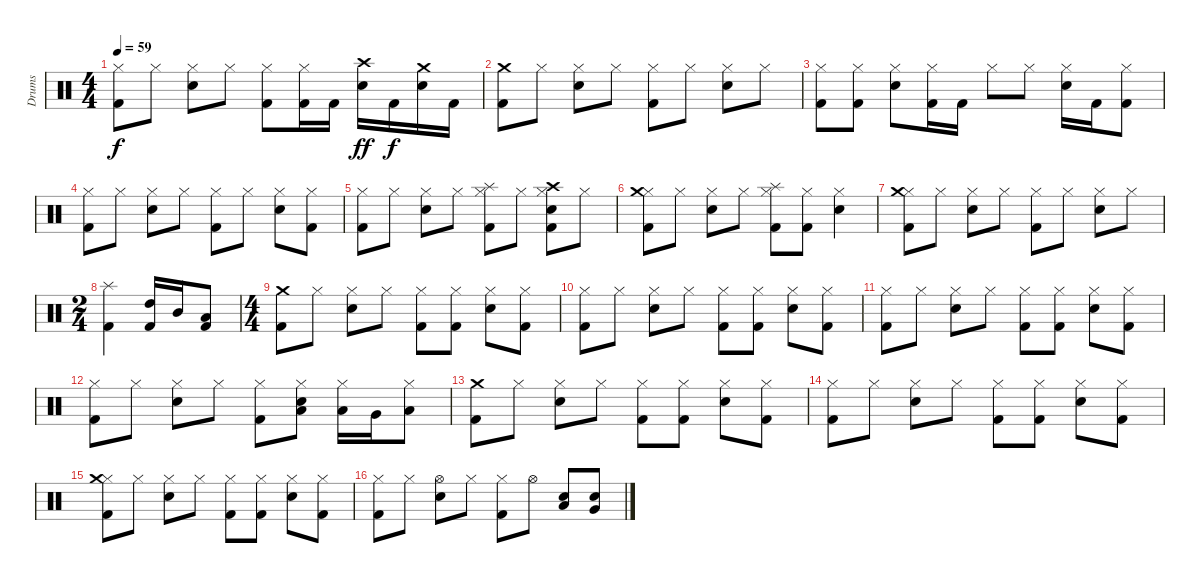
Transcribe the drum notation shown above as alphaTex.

\track ("Drums" "Drums") {instrument percussion}
\staff {score}
\articulation defaults
\ts (4 4)
\tempo 59
\clef neutral
\ks c
("Hi-Hat (closed)" "Kick (hit) 2").8{dy f} "Hi-Hat (closed)".8 ("Hi-Hat (closed)" "Electric Snare (hit)").8 "Hi-Hat (closed)".8 ("Hi-Hat (closed)" "Kick (hit) 2").8 ("Hi-Hat (closed)" "Kick (hit) 2").16 "Kick (hit) 2".16 ("Crash high (hit)" "Electric Snare (hit)").16{dy ff} "Kick (hit) 2".16{dy f} ("Crash medium (hit)" "Electric Snare (hit)").16 "Kick (hit) 2".16 |
("Crash medium (hit)" "Kick (hit) 2").8 "Hi-Hat (closed)".8 ("Hi-Hat (closed)" "Electric Snare (hit)").8 "Hi-Hat (closed)".8 ("Hi-Hat (closed)" "Kick (hit) 2").8 "Hi-Hat (closed)".8 ("Hi-Hat (closed)" "Electric Snare (hit)").8 "Hi-Hat (closed)".8 |
("Hi-Hat (closed)" "Kick (hit) 2").8 ("Hi-Hat (closed)" "Kick (hit) 2").8 ("Hi-Hat (closed)" "Electric Snare (hit)").8 ("Hi-Hat (closed)" "Kick (hit) 2").16 "Kick (hit) 2".16 "Hi-Hat (closed)".8 "Hi-Hat (closed)".8 ("Hi-Hat (closed)" "Electric Snare (hit)").16 "Kick (hit) 2".16 ("Hi-Hat (closed)" "Kick (hit) 2").8 |
("Hi-Hat (closed)" "Kick (hit) 2").8 "Hi-Hat (closed)".8 ("Hi-Hat (closed)" "Electric Snare (hit)").8 "Hi-Hat (closed)".8 ("Hi-Hat (closed)" "Kick (hit) 2").8 "Hi-Hat (closed)".8 ("Hi-Hat (closed)" "Electric Snare (hit)").8 ("Hi-Hat (closed)" "Kick (hit) 2").8 |
("Hi-Hat (closed)" "Kick (hit) 2").8 "Hi-Hat (closed)".8 ("Hi-Hat (closed)" "Electric Snare (hit)").8 "Hi-Hat (closed)".8 ("Hi-Hat (closed)" "Splash (hit)" "Kick (hit) 2").8 "Hi-Hat (closed)".8 ("Hi-Hat (closed)" "Electric Snare (hit)" "Crash high (hit)" "Kick (hit) 2").8 "Hi-Hat (closed)".8 |
("Hi-Hat (closed)" "Crash medium (hit)" "Kick (hit) 2").8 "Hi-Hat (closed)".8 ("Hi-Hat (closed)" "Electric Snare (hit)").8 "Hi-Hat (closed)".8 ("Hi-Hat (closed)" "Splash (hit)" "Kick (hit) 2").8 ("Hi-Hat (closed)" "Kick (hit) 2").8 ("Hi-Hat (closed)" "Electric Snare (hit)").4 |
("Hi-Hat (closed)" "Crash medium (hit)" "Kick (hit) 2").8 "Hi-Hat (closed)".8 ("Hi-Hat (closed)" "Electric Snare (hit)").8 "Hi-Hat (closed)".8 ("Hi-Hat (closed)" "Kick (hit) 2").8 "Hi-Hat (closed)".8 ("Hi-Hat (closed)" "Electric Snare (hit)").8 "Hi-Hat (closed)".8 |
\ts (2 4)
("Splash (hit)" "Kick (hit) 2").4 ("High Tom (hit)" "Kick (hit) 2").16 "Mid Tom (hit)".16 ("Low Tom (hit)" "Kick (hit) 2").8 |
\ts (4 4)
("Crash medium (hit)" "Kick (hit) 2").8 "Hi-Hat (closed)".8 ("Hi-Hat (closed)" "Electric Snare (hit)").8 "Hi-Hat (closed)".8 ("Hi-Hat (closed)" "Kick (hit) 2").8 ("Hi-Hat (closed)" "Kick (hit) 2").8 ("Hi-Hat (closed)" "Electric Snare (hit)").8 ("Hi-Hat (closed)" "Kick (hit) 2").8 |
("Hi-Hat (closed)" "Kick (hit) 2").8 "Hi-Hat (closed)".8 ("Hi-Hat (closed)" "Electric Snare (hit)").8 "Hi-Hat (closed)".8 ("Hi-Hat (closed)" "Kick (hit) 2").8 ("Hi-Hat (closed)" "Kick (hit) 2").8 ("Hi-Hat (closed)" "Electric Snare (hit)").8 ("Hi-Hat (closed)" "Kick (hit) 2").8 |
("Hi-Hat (closed)" "Kick (hit) 2").8 "Hi-Hat (closed)".8 ("Hi-Hat (closed)" "Electric Snare (hit)").8 "Hi-Hat (closed)".8 ("Hi-Hat (closed)" "Kick (hit) 2").8 ("Hi-Hat (closed)" "Kick (hit) 2").8 ("Hi-Hat (closed)" "Electric Snare (hit)").8 ("Hi-Hat (closed)" "Kick (hit) 2").8 |
("Hi-Hat (closed)" "Kick (hit) 2").8 "Hi-Hat (closed)".8 ("Hi-Hat (closed)" "Electric Snare (hit)").8 "Hi-Hat (closed)".8 ("Hi-Hat (closed)" "Kick (hit) 2").8 ("Hi-Hat (closed)" "Electric Snare (hit)" "Low Tom (hit)").8{bd 60} ("Hi-Hat (closed)" "Low Tom (hit)").16 "Very Low Tom (hit)".16 ("Hi-Hat (closed)" "Low Floor Tom (hit)").8 |
("Crash medium (hit)" "Kick (hit) 2").8 "Hi-Hat (closed)".8 ("Hi-Hat (closed)" "Electric Snare (hit)").8 "Hi-Hat (closed)".8 ("Hi-Hat (closed)" "Kick (hit) 2").8 ("Hi-Hat (closed)" "Kick (hit) 2").8 ("Hi-Hat (closed)" "Electric Snare (hit)").8 ("Hi-Hat (closed)" "Kick (hit) 2").8 |
("Hi-Hat (closed)" "Kick (hit) 2").8 "Hi-Hat (closed)".8 ("Hi-Hat (closed)" "Electric Snare (hit)").8 "Hi-Hat (closed)".8 ("Hi-Hat (closed)" "Kick (hit) 2").8 ("Hi-Hat (closed)" "Kick (hit) 2").8 ("Hi-Hat (closed)" "Electric Snare (hit)").8 ("Hi-Hat (closed)" "Kick (hit) 2").8 |
("Hi-Hat (closed)" "Crash medium (hit)" "Kick (hit) 2").8 "Hi-Hat (closed)".8 ("Hi-Hat (closed)" "Electric Snare (hit)").8 "Hi-Hat (closed)".8 ("Hi-Hat (closed)" "Kick (hit) 2").8 ("Hi-Hat (closed)" "Kick (hit) 2").8 ("Hi-Hat (closed)" "Electric Snare (hit)").8 ("Hi-Hat (closed)" "Kick (hit) 2").8 |
("Hi-Hat (closed)" "Kick (hit) 2").8 "Hi-Hat (closed)".8 ("Hi-Hat (open)" "Electric Snare (hit)").8 "Hi-Hat (closed)".8 ("Hi-Hat (closed)" "Kick (hit) 2").8 "Hi-Hat (open)".8 ("Low Tom (hit)" "Electric Snare (hit)").8 ("Very Low Tom (hit)" "Electric Snare (hit)").8
